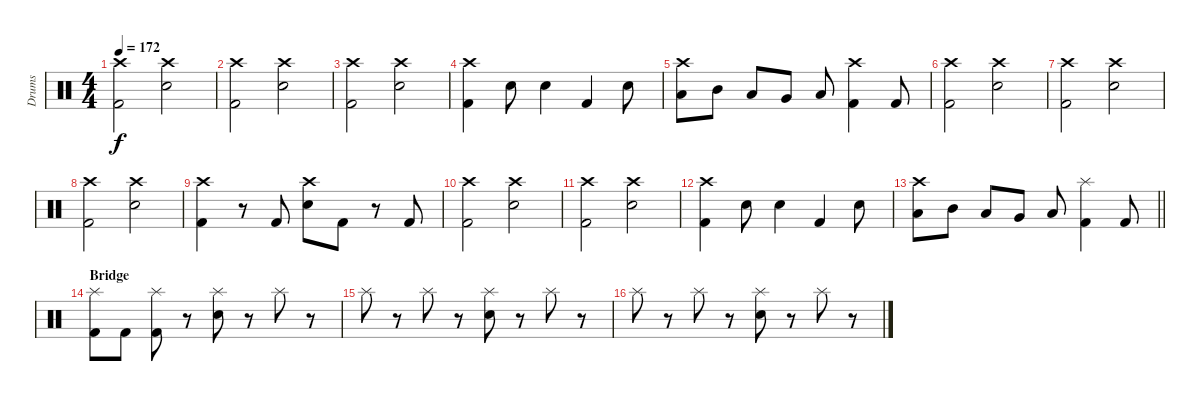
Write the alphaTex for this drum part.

\track ("Drums" "Drums") {instrument percussion}
\staff {score}
\articulation defaults
\ts (4 4)
\tempo 172
\clef neutral
\ks c
("Crash high (hit)" "Kick (hit) 2").2{dy f} ("Crash high (hit)" "Electric Snare (hit)").2 |
("Crash high (hit)" "Kick (hit) 2").2 ("Crash high (hit)" "Electric Snare (hit)").2 |
("Crash high (hit)" "Kick (hit) 2").2 ("Crash high (hit)" "Electric Snare (hit)").2 |
("Crash high (hit)" "Kick (hit) 2").4 "Electric Snare (hit)".8 "Electric Snare (hit)".4 "Kick (hit) 2".4 "Electric Snare (hit)".8 |
("Crash high (hit)" "Low Tom (hit)").8 "Mid Tom (hit)".8 "Low Tom (hit)".8 "Very Low Tom (hit)".8 "Low Floor Tom (hit)".8 ("Crash high (hit)" "Kick (hit) 2").4 "Kick (hit) 2".8 |
("Crash high (hit)" "Kick (hit) 2").2 ("Crash high (hit)" "Electric Snare (hit)").2 |
("Crash high (hit)" "Kick (hit) 2").2 ("Crash high (hit)" "Electric Snare (hit)").2 |
("Crash high (hit)" "Kick (hit) 2").2 ("Crash high (hit)" "Electric Snare (hit)").2 |
("Crash high (hit)" "Kick (hit) 2").4 r.8 "Kick (hit) 2".8 ("Crash high (hit)" "Electric Snare (hit)").8 "Kick (hit) 2".8 r.8 "Kick (hit) 2".8 |
("Crash high (hit)" "Kick (hit) 2").2 ("Crash high (hit)" "Electric Snare (hit)").2 |
("Crash high (hit)" "Kick (hit) 2").2 ("Crash high (hit)" "Electric Snare (hit)").2 |
("Crash high (hit)" "Kick (hit) 2").4 "Electric Snare (hit)".8 "Electric Snare (hit)".4 "Kick (hit) 2".4 "Electric Snare (hit)".8 |
\barLineRight lightlight
("Crash high (hit)" "Low Tom (hit)").8 "Mid Tom (hit)".8 "Low Tom (hit)".8 "Very Low Tom (hit)".8 "Low Floor Tom (hit)".8 ("Splash (hit)" "Kick (hit) 2").4 "Kick (hit) 2".8 |
\section ("" "Bridge")
("Splash (hit)" "Kick (hit) 2").8 "Kick (hit) 2".8 ("Splash (hit)" "Kick (hit) 2").8 r.8 ("Splash (hit)" "Electric Snare (hit)").8 r.8 "Splash (hit)".8 r.8 |
"Splash (hit)".8 r.8 "Splash (hit)".8 r.8 ("Splash (hit)" "Electric Snare (hit)").8 r.8 "Splash (hit)".8 r.8 |
"Splash (hit)".8 r.8 "Splash (hit)".8 r.8 ("Splash (hit)" "Electric Snare (hit)").8 r.8 "Splash (hit)".8 r.8
